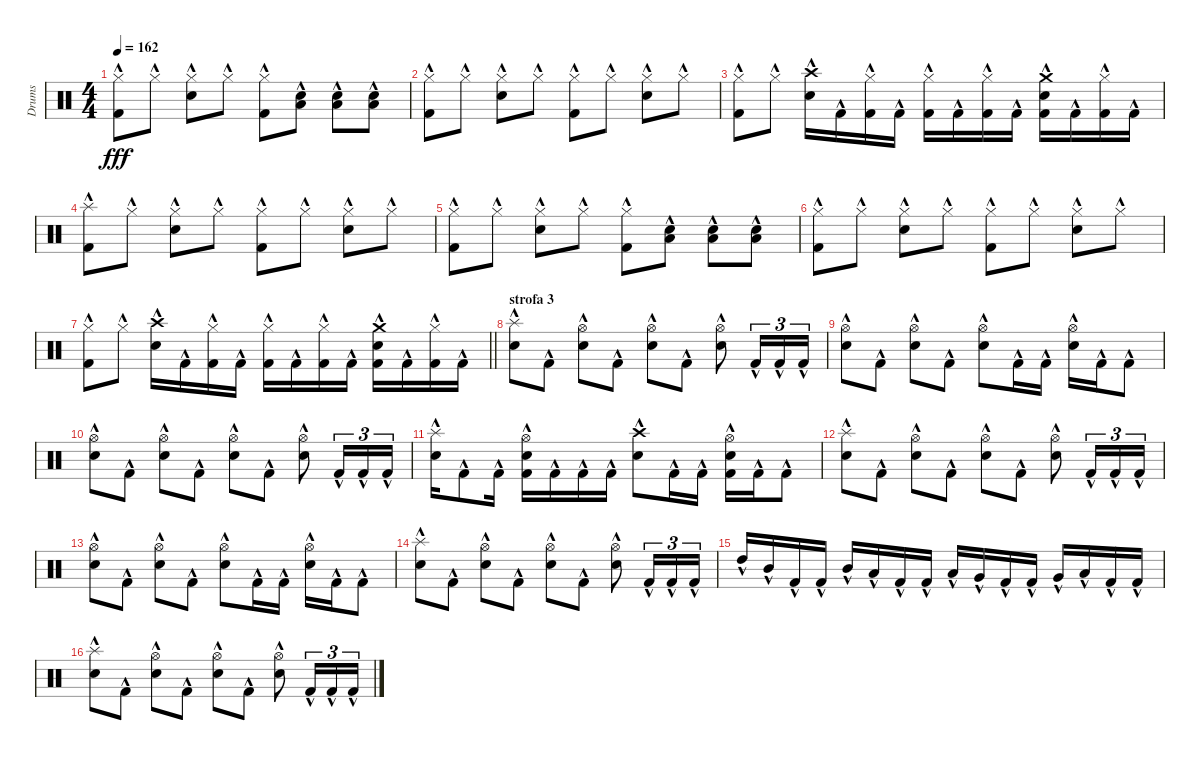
\track ("Drums" "Drums") {instrument percussion}
\staff {score}
\articulation defaults
\ts (4 4)
\tempo 162
\clef neutral
\ks c
("Hi-Hat (closed)"{hac} "Kick (hit) 2"{hac}).8{dy fff} "Hi-Hat (closed)"{hac}.8 ("Hi-Hat (closed)"{hac} "Electric Snare (hit)"{hac}).8 "Hi-Hat (closed)"{hac}.8 ("Hi-Hat (closed)"{hac} "Kick (hit) 2"{hac}).8 ("Electric Snare (hit)"{hac} "Low Floor Tom (hit)"{hac}).8 ("Electric Snare (hit)"{hac} "Low Floor Tom (hit)"{hac}).8 ("Electric Snare (hit)"{hac} "Low Floor Tom (hit)"{hac}).8 |
("Hi-Hat (closed)"{hac} "Kick (hit) 2"{hac}).8 "Hi-Hat (closed)"{hac}.8 ("Hi-Hat (closed)"{hac} "Electric Snare (hit)"{hac}).8 "Hi-Hat (closed)"{hac}.8 ("Hi-Hat (closed)"{hac} "Kick (hit) 2"{hac}).8 "Hi-Hat (closed)"{hac}.8 ("Hi-Hat (closed)"{hac} "Electric Snare (hit)"{hac}).8 "Hi-Hat (closed)"{hac}.8 |
("Hi-Hat (closed)"{hac} "Kick (hit) 2"{hac}).8 "Hi-Hat (closed)"{hac}.8 ("Electric Snare (hit)"{hac} "Crash high (hit)"{hac}).16 "Kick (hit) 2"{hac}.16 ("Hi-Hat (closed)"{hac} "Kick (hit) 2"{hac}).16 "Kick (hit) 2"{hac}.16 ("Hi-Hat (closed)"{hac} "Kick (hit) 2"{hac}).16 "Kick (hit) 2"{hac}.16 ("Hi-Hat (closed)"{hac} "Kick (hit) 2"{hac}).16 "Kick (hit) 2"{hac}.16 ("Kick (hit) 2"{hac} "Electric Snare (hit)"{hac} "Crash medium (hit)"{hac}).16 "Kick (hit) 2"{hac}.16 ("Hi-Hat (closed)"{hac} "Kick (hit) 2"{hac}).16 "Kick (hit) 2"{hac}.16 |
("Kick (hit) 2"{hac} "Splash (hit)"{hac}).8 "Hi-Hat (closed)"{hac}.8 ("Hi-Hat (closed)"{hac} "Electric Snare (hit)"{hac}).8 "Hi-Hat (closed)"{hac}.8 ("Hi-Hat (closed)"{hac} "Kick (hit) 2"{hac}).8 "Hi-Hat (closed)"{hac}.8 ("Hi-Hat (closed)"{hac} "Electric Snare (hit)"{hac}).8 "Hi-Hat (closed)"{hac}.8 |
("Hi-Hat (closed)"{hac} "Kick (hit) 2"{hac}).8 "Hi-Hat (closed)"{hac}.8 ("Hi-Hat (closed)"{hac} "Electric Snare (hit)"{hac}).8 "Hi-Hat (closed)"{hac}.8 ("Hi-Hat (closed)"{hac} "Kick (hit) 2"{hac}).8 ("Electric Snare (hit)"{hac} "Low Floor Tom (hit)"{hac}).8 ("Electric Snare (hit)"{hac} "Low Floor Tom (hit)"{hac}).8 ("Electric Snare (hit)"{hac} "Low Floor Tom (hit)"{hac}).8 |
("Hi-Hat (closed)"{hac} "Kick (hit) 2"{hac}).8 "Hi-Hat (closed)"{hac}.8 ("Hi-Hat (closed)"{hac} "Electric Snare (hit)"{hac}).8 "Hi-Hat (closed)"{hac}.8 ("Hi-Hat (closed)"{hac} "Kick (hit) 2"{hac}).8 "Hi-Hat (closed)"{hac}.8 ("Hi-Hat (closed)"{hac} "Electric Snare (hit)"{hac}).8 "Hi-Hat (closed)"{hac}.8 |
\barLineRight lightlight
("Hi-Hat (closed)"{hac} "Kick (hit) 2"{hac}).8 "Hi-Hat (closed)"{hac}.8 ("Electric Snare (hit)"{hac} "Crash high (hit)"{hac}).16 "Kick (hit) 2"{hac}.16 ("Hi-Hat (closed)"{hac} "Kick (hit) 2"{hac}).16 "Kick (hit) 2"{hac}.16 ("Hi-Hat (closed)"{hac} "Kick (hit) 2"{hac}).16 "Kick (hit) 2"{hac}.16 ("Hi-Hat (closed)"{hac} "Kick (hit) 2"{hac}).16 "Kick (hit) 2"{hac}.16 ("Kick (hit) 2"{hac} "Electric Snare (hit)"{hac} "Crash medium (hit)"{hac}).16 "Kick (hit) 2"{hac}.16 ("Hi-Hat (closed)"{hac} "Kick (hit) 2"{hac}).16 "Kick (hit) 2"{hac}.16 |
\section ("" "strofa 3")
("Electric Snare (hit)"{hac} "Splash (hit)"{hac}).8 "Kick (hit) 2"{hac}.8 ("Hi-Hat (open)"{hac} "Electric Snare (hit)"{hac}).8 "Kick (hit) 2"{hac}.8 ("Hi-Hat (open)"{hac} "Electric Snare (hit)"{hac}).8 "Kick (hit) 2"{hac}.8 ("Hi-Hat (open)"{hac} "Electric Snare (hit)"{hac}).8 "Kick (hit) 2"{hac}.16{tu (3 2)} "Kick (hit) 2"{hac}.16{tu (3 2)} "Kick (hit) 2"{hac}.16{tu (3 2)} |
("Hi-Hat (open)"{hac} "Electric Snare (hit)"{hac}).8 "Kick (hit) 2"{hac}.8 ("Hi-Hat (open)"{hac} "Electric Snare (hit)"{hac}).8 "Kick (hit) 2"{hac}.8 ("Hi-Hat (open)"{hac} "Electric Snare (hit)"{hac}).8 "Kick (hit) 2"{hac}.16 "Kick (hit) 2"{hac}.16 ("Hi-Hat (open)"{hac} "Electric Snare (hit)"{hac}).16 "Kick (hit) 2"{hac}.16 "Kick (hit) 2"{hac}.8 |
("Hi-Hat (open)"{hac} "Electric Snare (hit)"{hac}).8 "Kick (hit) 2"{hac}.8 ("Hi-Hat (open)"{hac} "Electric Snare (hit)"{hac}).8 "Kick (hit) 2"{hac}.8 ("Hi-Hat (open)"{hac} "Electric Snare (hit)"{hac}).8 "Kick (hit) 2"{hac}.8 ("Hi-Hat (open)"{hac} "Electric Snare (hit)"{hac}).8 "Kick (hit) 2"{hac}.16{tu (3 2)} "Kick (hit) 2"{hac}.16{tu (3 2)} "Kick (hit) 2"{hac}.16{tu (3 2)} |
("Electric Snare (hit)"{hac} "Splash (hit)"{hac}).16 "Kick (hit) 2"{hac}.8 "Kick (hit) 2"{hac}.16 ("Hi-Hat (open)"{hac} "Kick (hit) 2"{hac} "Electric Snare (hit)"{hac}).16 "Kick (hit) 2"{hac}.16 "Kick (hit) 2"{hac}.16 "Kick (hit) 2"{hac}.16 ("Electric Snare (hit)"{hac} "Crash high (hit)"{hac}).8 "Kick (hit) 2"{hac}.16 "Kick (hit) 2"{hac}.16 ("Hi-Hat (open)"{hac} "Kick (hit) 2"{hac} "Electric Snare (hit)"{hac}).16 "Kick (hit) 2"{hac}.16 "Kick (hit) 2"{hac}.8 |
("Electric Snare (hit)"{hac} "Splash (hit)"{hac}).8 "Kick (hit) 2"{hac}.8 ("Hi-Hat (open)"{hac} "Electric Snare (hit)"{hac}).8 "Kick (hit) 2"{hac}.8 ("Hi-Hat (open)"{hac} "Electric Snare (hit)"{hac}).8 "Kick (hit) 2"{hac}.8 ("Hi-Hat (open)"{hac} "Electric Snare (hit)"{hac}).8 "Kick (hit) 2"{hac}.16{tu (3 2)} "Kick (hit) 2"{hac}.16{tu (3 2)} "Kick (hit) 2"{hac}.16{tu (3 2)} |
("Hi-Hat (open)"{hac} "Electric Snare (hit)"{hac}).8 "Kick (hit) 2"{hac}.8 ("Hi-Hat (open)"{hac} "Electric Snare (hit)"{hac}).8 "Kick (hit) 2"{hac}.8 ("Hi-Hat (open)"{hac} "Electric Snare (hit)"{hac}).8 "Kick (hit) 2"{hac}.16 "Kick (hit) 2"{hac}.16 ("Hi-Hat (open)"{hac} "Electric Snare (hit)"{hac}).16 "Kick (hit) 2"{hac}.16 "Kick (hit) 2"{hac}.8 |
("Electric Snare (hit)"{hac} "Splash (hit)"{hac}).8 "Kick (hit) 2"{hac}.8 ("Hi-Hat (open)"{hac} "Electric Snare (hit)"{hac}).8 "Kick (hit) 2"{hac}.8 ("Hi-Hat (open)"{hac} "Electric Snare (hit)"{hac}).8 "Kick (hit) 2"{hac}.8 ("Hi-Hat (open)"{hac} "Electric Snare (hit)"{hac}).8 "Kick (hit) 2"{hac}.16{tu (3 2)} "Kick (hit) 2"{hac}.16{tu (3 2)} "Kick (hit) 2"{hac}.16{tu (3 2)} |
"High Tom (hit)"{hac}.16 "Mid Tom (hit)"{hac}.16 "Kick (hit) 2"{hac}.16 "Kick (hit) 2"{hac}.16 "Mid Tom (hit)"{hac}.16 "Low Tom (hit)"{hac}.16 "Kick (hit) 2"{hac}.16 "Kick (hit) 2"{hac}.16 "Low Tom (hit)"{hac}.16 "Very Low Tom (hit)"{hac}.16 "Kick (hit) 2"{hac}.16 "Kick (hit) 2"{hac}.16 "Very Low Tom (hit)"{hac}.16 "Low Floor Tom (hit)"{hac}.16 "Kick (hit) 2"{hac}.16 "Kick (hit) 2"{hac}.16 |
("Electric Snare (hit)"{hac} "Splash (hit)"{hac}).8 "Kick (hit) 2"{hac}.8 ("Hi-Hat (open)"{hac} "Electric Snare (hit)"{hac}).8 "Kick (hit) 2"{hac}.8 ("Hi-Hat (open)"{hac} "Electric Snare (hit)"{hac}).8 "Kick (hit) 2"{hac}.8 ("Hi-Hat (open)"{hac} "Electric Snare (hit)"{hac}).8 "Kick (hit) 2"{hac}.16{tu (3 2)} "Kick (hit) 2"{hac}.16{tu (3 2)} "Kick (hit) 2"{hac}.16{tu (3 2)}
